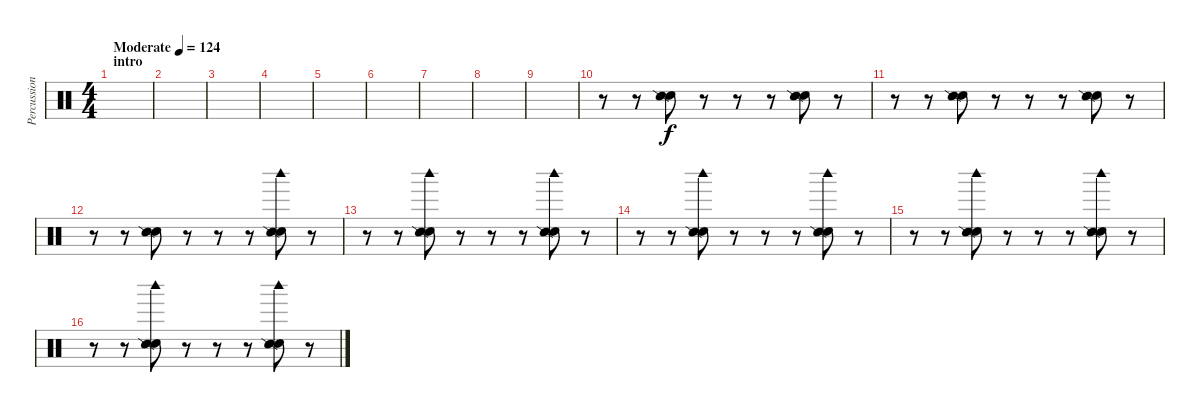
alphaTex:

\track ("Percussions" "Percussion") {instrument percussion}
\staff {score}
\articulation defaults
\ts (4 4)
\section ("" "intro")
\tempo (124 "Moderate")
\clef neutral
\ks c
|
|
|
|
|
|
|
|
|
r.8 r.8 ("Snare (hit) 2" "Snare (side stick) 2").8 r.8 r.8 r.8 ("Snare (hit) 2" "Snare (side stick) 2").8 r.8 |
r.8 r.8 ("Snare (hit) 2" "Snare (side stick) 2").8 r.8 r.8 r.8 ("Snare (hit) 2" "Snare (side stick) 2").8 r.8 |
r.8 r.8 ("Snare (hit) 2" "Snare (side stick) 2").8 r.8 r.8 r.8 ("Snare (hit) 2" "Snare (side stick) 2" "Woodblock high (hit)").8 r.8 |
r.8 r.8 ("Snare (hit) 2" "Snare (side stick) 2" "Woodblock high (hit)").8 r.8 r.8 r.8 ("Snare (hit) 2" "Snare (side stick) 2" "Woodblock high (hit)").8 r.8 |
r.8 r.8 ("Snare (hit) 2" "Snare (side stick) 2" "Woodblock high (hit)").8 r.8 r.8 r.8 ("Snare (hit) 2" "Snare (side stick) 2" "Woodblock high (hit)").8 r.8 |
r.8 r.8 ("Snare (hit) 2" "Snare (side stick) 2" "Woodblock high (hit)").8 r.8 r.8 r.8 ("Snare (hit) 2" "Snare (side stick) 2" "Woodblock high (hit)").8 r.8 |
r.8 r.8 ("Snare (hit) 2" "Snare (side stick) 2" "Woodblock high (hit)").8 r.8 r.8 r.8 ("Snare (hit) 2" "Snare (side stick) 2" "Woodblock high (hit)").8 r.8
